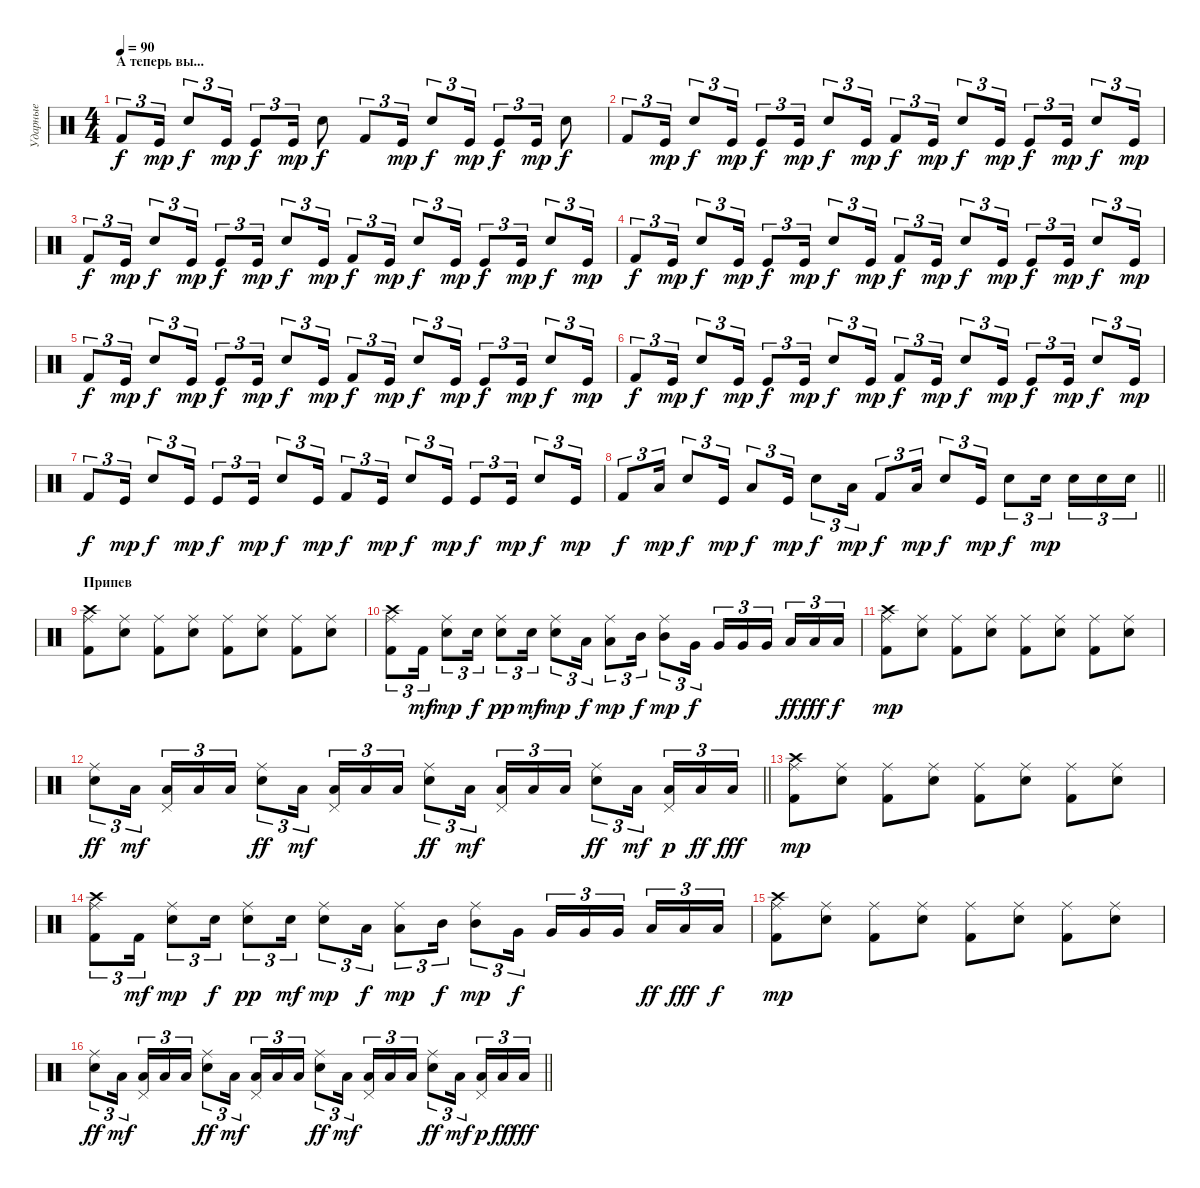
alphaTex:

\track ("Ударные" "Ударные") {instrument percussion}
\staff {score}
\articulation defaults
\ts (4 4)
\section ("" "А теперь вы...")
\tempo 90
\clef neutral
\ks c "Kick (hit) 2".8{tu (3 2) dy f} "Kick (hit)".16{tu (3 2) dy mp} "Snare (hit) 2".8{tu (3 2) dy f} "Kick (hit)".16{tu (3 2) dy mp} "Kick (hit)".8{tu (3 2) dy f} "Kick (hit)".16{tu (3 2) dy mp} "Snare (hit) 2".8{dy f} "Kick (hit) 2".8{tu (3 2)} "Kick (hit)".16{tu (3 2) dy mp} "Snare (hit) 2".8{tu (3 2) dy f} "Kick (hit)".16{tu (3 2) dy mp} "Kick (hit)".8{tu (3 2) dy f} "Kick (hit)".16{tu (3 2) dy mp} "Snare (hit) 2".8{dy f}
|
"Kick (hit) 2".8{tu (3 2)} "Kick (hit)".16{tu (3 2) dy mp} "Snare (hit) 2".8{tu (3 2) dy f} "Kick (hit)".16{tu (3 2) dy mp} "Kick (hit)".8{tu (3 2) dy f} "Kick (hit)".16{tu (3 2) dy mp} "Snare (hit) 2".8{tu (3 2) dy f} "Kick (hit)".16{tu (3 2) dy mp} "Kick (hit) 2".8{tu (3 2) dy f} "Kick (hit)".16{tu (3 2) dy mp} "Snare (hit) 2".8{tu (3 2) dy f} "Kick (hit)".16{tu (3 2) dy mp} "Kick (hit)".8{tu (3 2) dy f} "Kick (hit)".16{tu (3 2) dy mp} "Snare (hit) 2".8{tu (3 2) dy f} "Kick (hit)".16{tu (3 2) dy mp} |
"Kick (hit) 2".8{tu (3 2) dy f} "Kick (hit)".16{tu (3 2) dy mp} "Snare (hit) 2".8{tu (3 2) dy f} "Kick (hit)".16{tu (3 2) dy mp} "Kick (hit)".8{tu (3 2) dy f} "Kick (hit)".16{tu (3 2) dy mp} "Snare (hit) 2".8{tu (3 2) dy f} "Kick (hit)".16{tu (3 2) dy mp} "Kick (hit) 2".8{tu (3 2) dy f} "Kick (hit)".16{tu (3 2) dy mp} "Snare (hit) 2".8{tu (3 2) dy f} "Kick (hit)".16{tu (3 2) dy mp} "Kick (hit)".8{tu (3 2) dy f} "Kick (hit)".16{tu (3 2) dy mp} "Snare (hit) 2".8{tu (3 2) dy f} "Kick (hit)".16{tu (3 2) dy mp} |
"Kick (hit) 2".8{tu (3 2) dy f} "Kick (hit)".16{tu (3 2) dy mp} "Snare (hit) 2".8{tu (3 2) dy f} "Kick (hit)".16{tu (3 2) dy mp} "Kick (hit)".8{tu (3 2) dy f} "Kick (hit)".16{tu (3 2) dy mp} "Snare (hit) 2".8{tu (3 2) dy f} "Kick (hit)".16{tu (3 2) dy mp} "Kick (hit) 2".8{tu (3 2) dy f} "Kick (hit)".16{tu (3 2) dy mp} "Snare (hit) 2".8{tu (3 2) dy f} "Kick (hit)".16{tu (3 2) dy mp} "Kick (hit)".8{tu (3 2) dy f} "Kick (hit)".16{tu (3 2) dy mp} "Snare (hit) 2".8{tu (3 2) dy f} "Kick (hit)".16{tu (3 2) dy mp} |
"Kick (hit) 2".8{tu (3 2) dy f} "Kick (hit)".16{tu (3 2) dy mp} "Snare (hit) 2".8{tu (3 2) dy f} "Kick (hit)".16{tu (3 2) dy mp} "Kick (hit)".8{tu (3 2) dy f} "Kick (hit)".16{tu (3 2) dy mp} "Snare (hit) 2".8{tu (3 2) dy f} "Kick (hit)".16{tu (3 2) dy mp} "Kick (hit) 2".8{tu (3 2) dy f} "Kick (hit)".16{tu (3 2) dy mp} "Snare (hit) 2".8{tu (3 2) dy f} "Kick (hit)".16{tu (3 2) dy mp} "Kick (hit)".8{tu (3 2) dy f} "Kick (hit)".16{tu (3 2) dy mp} "Snare (hit) 2".8{tu (3 2) dy f} "Kick (hit)".16{tu (3 2) dy mp} |
"Kick (hit) 2".8{tu (3 2) dy f} "Kick (hit)".16{tu (3 2) dy mp} "Snare (hit) 2".8{tu (3 2) dy f} "Kick (hit)".16{tu (3 2) dy mp} "Kick (hit)".8{tu (3 2) dy f} "Kick (hit)".16{tu (3 2) dy mp} "Snare (hit) 2".8{tu (3 2) dy f} "Kick (hit)".16{tu (3 2) dy mp} "Kick (hit) 2".8{tu (3 2) dy f} "Kick (hit)".16{tu (3 2) dy mp} "Snare (hit) 2".8{tu (3 2) dy f} "Kick (hit)".16{tu (3 2) dy mp} "Kick (hit)".8{tu (3 2) dy f} "Kick (hit)".16{tu (3 2) dy mp} "Snare (hit) 2".8{tu (3 2) dy f} "Kick (hit)".16{tu (3 2) dy mp} |
"Kick (hit) 2".8{tu (3 2) dy f} "Kick (hit)".16{tu (3 2) dy mp} "Snare (hit) 2".8{tu (3 2) dy f} "Kick (hit)".16{tu (3 2) dy mp} "Kick (hit)".8{tu (3 2) dy f} "Kick (hit)".16{tu (3 2) dy mp} "Snare (hit) 2".8{tu (3 2) dy f} "Kick (hit)".16{tu (3 2) dy mp} "Kick (hit) 2".8{tu (3 2) dy f} "Kick (hit)".16{tu (3 2) dy mp} "Snare (hit) 2".8{tu (3 2) dy f} "Kick (hit)".16{tu (3 2) dy mp} "Kick (hit)".8{tu (3 2) dy f} "Kick (hit)".16{tu (3 2) dy mp} "Snare (hit) 2".8{tu (3 2) dy f} "Kick (hit)".16{tu (3 2) dy mp} |
\barLineRight lightlight "Kick (hit) 2".8{tu (3 2) dy f} "Low Tom (hit)".16{tu (3 2) dy mp} "Snare (hit) 2".8{tu (3 2) dy f} "Kick (hit)".16{tu (3 2) dy mp} "Low Tom (hit)".8{tu (3 2) dy f} "Kick (hit)".16{tu (3 2) dy mp} "Snare (hit) 2".8{tu (3 2) dy f} "Low Tom (hit)".16{tu (3 2) dy mp} "Kick (hit) 2".8{tu (3 2) dy f} "Low Tom (hit)".16{tu (3 2) dy mp} "Snare (hit) 2".8{tu (3 2) dy f} "Kick (hit)".16{tu (3 2) dy mp} "Snare (hit) 2".8{tu (3 2) dy f} "Snare (hit) 2".16{tu (3 2) dy mp beam splitsecondary} "Snare (hit) 2".16{tu (3 2)} "Snare (hit) 2".16{tu (3 2)} "Snare (hit) 2".16{tu (3 2)}
|
\section ("" "Припев")
("Crash high (hit)" "Ride (middle)" "Kick (hit) 2").8 ("Ride (middle)" "Snare (hit) 2").8 ("Ride (middle)" "Kick (hit) 2").8 ("Ride (middle)" "Snare (hit) 2").8 ("Ride (middle)" "Kick (hit) 2").8 ("Ride (middle)" "Snare (hit) 2").8 ("Ride (middle)" "Kick (hit) 2").8 ("Ride (middle)" "Snare (hit) 2").8 |
("Crash high (hit)" "Ride (middle)" "Kick (hit) 2").8{tu (3 2)} "Kick (hit) 2".16{tu (3 2) dy mf} ("Ride (middle)" "Snare (hit) 2").8{tu (3 2) dy mp} "Snare (hit) 2".16{tu (3 2) dy f} ("Ride (middle)" "Snare (hit) 2").8{tu (3 2) dy pp} "Electric Snare (hit)".16{tu (3 2) dy mf} ("Ride (middle)" "Electric Snare (hit)").8{tu (3 2) dy mp} "Low Tom (hit)".16{tu (3 2) dy f} ("Ride (middle)" "Low Tom (hit)").8{tu (3 2) dy mp} "Mid Tom (hit)".16{tu (3 2) dy f} ("Ride (middle)" "Mid Tom (hit)").8{tu (3 2) dy mp} "Very Low Tom (hit)".16{tu (3 2) dy f} "Very Low Tom (hit)".16{tu (3 2)} "Very Low Tom (hit)".16{tu (3 2)} "Very Low Tom (hit)".16{tu (3 2) beam splitsecondary} "Low Tom (hit)".16{tu (3 2) dy ff} "Low Tom (hit)".16{tu (3 2) dy fff} "Low Tom (hit)".16{tu (3 2) dy f} |
("Crash high (hit)" "Ride (middle)" "Kick (hit) 2").8{dy mp} ("Ride (middle)" "Snare (hit) 2").8 ("Ride (middle)" "Kick (hit) 2").8 ("Ride (middle)" "Snare (hit) 2").8 ("Ride (middle)" "Kick (hit) 2").8 ("Ride (middle)" "Snare (hit) 2").8 ("Ride (middle)" "Kick (hit) 2").8 ("Ride (middle)" "Snare (hit) 2").8 |
\barLineRight lightlight
("Ride (middle)" "Snare (hit) 2").8{tu (3 2) dy ff} "Low Tom (hit)".16{tu (3 2) dy mf beam splitsecondary} ("Pedal Hi-Hat (hit)" "Low Tom (hit)").16{tu (3 2)} "Low Tom (hit)".16{tu (3 2)} "Low Tom (hit)".16{tu (3 2)} ("Ride (middle)" "Snare (hit) 2").8{tu (3 2) dy ff} "Low Tom (hit)".16{tu (3 2) dy mf beam splitsecondary} ("Pedal Hi-Hat (hit)" "Low Tom (hit)").16{tu (3 2)} "Low Tom (hit)".16{tu (3 2)} "Low Tom (hit)".16{tu (3 2)} ("Ride (middle)" "Snare (hit) 2").8{tu (3 2) dy ff} "Low Tom (hit)".16{tu (3 2) dy mf beam splitsecondary} ("Pedal Hi-Hat (hit)" "Low Tom (hit)").16{tu (3 2)} "Low Tom (hit)".16{tu (3 2)} "Low Tom (hit)".16{tu (3 2)} ("Ride (middle)" "Snare (hit) 2").8{tu (3 2) dy ff} "Low Tom (hit)".16{tu (3 2) dy mf beam splitsecondary} ("Pedal Hi-Hat (hit)" "Low Tom (hit)").16{tu (3 2) dy p} "Low Tom (hit)".16{tu (3 2) dy ff} "Low Tom (hit)".16{tu (3 2) dy fff} |
("Crash high (hit)" "Ride (middle)" "Kick (hit) 2").8{dy mp} ("Ride (middle)" "Snare (hit) 2").8 ("Ride (middle)" "Kick (hit) 2").8 ("Ride (middle)" "Snare (hit) 2").8 ("Ride (middle)" "Kick (hit) 2").8 ("Ride (middle)" "Snare (hit) 2").8 ("Ride (middle)" "Kick (hit) 2").8 ("Ride (middle)" "Snare (hit) 2").8 |
("Crash high (hit)" "Ride (middle)" "Kick (hit) 2").8{tu (3 2)} "Kick (hit) 2".16{tu (3 2) dy mf} ("Ride (middle)" "Snare (hit) 2").8{tu (3 2) dy mp} "Snare (hit) 2".16{tu (3 2) dy f} ("Ride (middle)" "Snare (hit) 2").8{tu (3 2) dy pp} "Electric Snare (hit)".16{tu (3 2) dy mf} ("Ride (middle)" "Electric Snare (hit)").8{tu (3 2) dy mp} "Low Tom (hit)".16{tu (3 2) dy f} ("Ride (middle)" "Low Tom (hit)").8{tu (3 2) dy mp} "Mid Tom (hit)".16{tu (3 2) dy f} ("Ride (middle)" "Mid Tom (hit)").8{tu (3 2) dy mp} "Very Low Tom (hit)".16{tu (3 2) dy f} "Very Low Tom (hit)".16{tu (3 2)} "Very Low Tom (hit)".16{tu (3 2)} "Very Low Tom (hit)".16{tu (3 2) beam splitsecondary} "Low Tom (hit)".16{tu (3 2) dy ff} "Low Tom (hit)".16{tu (3 2) dy fff} "Low Tom (hit)".16{tu (3 2) dy f} |
("Crash high (hit)" "Ride (middle)" "Kick (hit) 2").8{dy mp} ("Ride (middle)" "Snare (hit) 2").8 ("Ride (middle)" "Kick (hit) 2").8 ("Ride (middle)" "Snare (hit) 2").8 ("Ride (middle)" "Kick (hit) 2").8 ("Ride (middle)" "Snare (hit) 2").8 ("Ride (middle)" "Kick (hit) 2").8 ("Ride (middle)" "Snare (hit) 2").8 |
\barLineRight lightlight
("Ride (middle)" "Snare (hit) 2").8{tu (3 2) dy ff} "Low Tom (hit)".16{tu (3 2) dy mf beam splitsecondary} ("Pedal Hi-Hat (hit)" "Low Tom (hit)").16{tu (3 2)} "Low Tom (hit)".16{tu (3 2)} "Low Tom (hit)".16{tu (3 2)} ("Ride (middle)" "Snare (hit) 2").8{tu (3 2) dy ff} "Low Tom (hit)".16{tu (3 2) dy mf beam splitsecondary} ("Pedal Hi-Hat (hit)" "Low Tom (hit)").16{tu (3 2)} "Low Tom (hit)".16{tu (3 2)} "Low Tom (hit)".16{tu (3 2)} ("Ride (middle)" "Snare (hit) 2").8{tu (3 2) dy ff} "Low Tom (hit)".16{tu (3 2) dy mf beam splitsecondary} ("Pedal Hi-Hat (hit)" "Low Tom (hit)").16{tu (3 2)} "Low Tom (hit)".16{tu (3 2)} "Low Tom (hit)".16{tu (3 2)} ("Ride (middle)" "Snare (hit) 2").8{tu (3 2) dy ff} "Low Tom (hit)".16{tu (3 2) dy mf beam splitsecondary} ("Pedal Hi-Hat (hit)" "Low Tom (hit)").16{tu (3 2) dy p} "Low Tom (hit)".16{tu (3 2) dy ff} "Low Tom (hit)".16{tu (3 2) dy fff}
